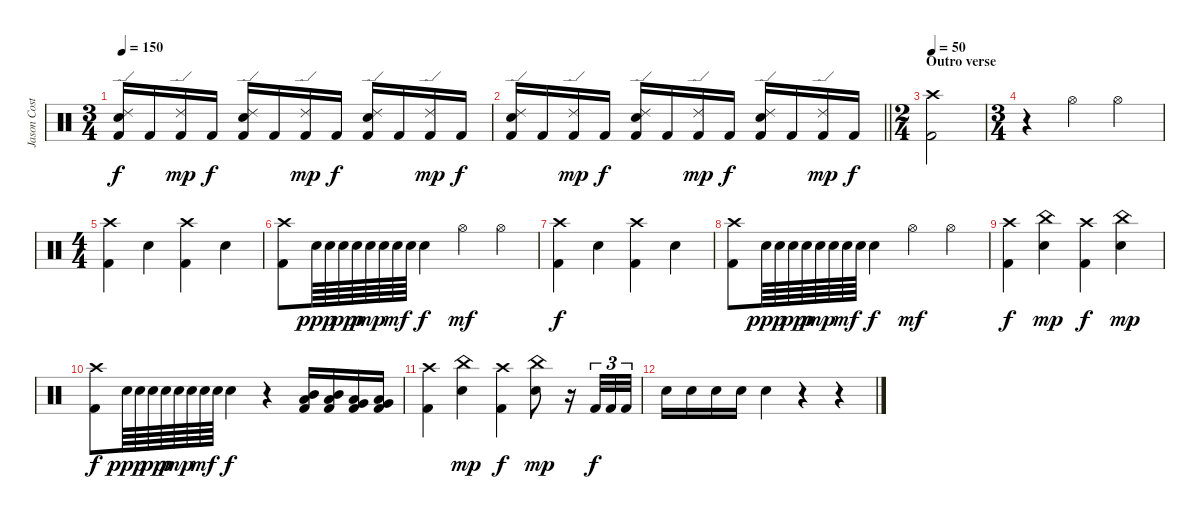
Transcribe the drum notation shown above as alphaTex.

\track ("Jason Costa" "Jason Cost") {instrument percussion}
\staff {score}
\articulation defaults
\ts (3 4)
\tempo 150
\clef neutral
\ks c
("Ride (edge) 2" "Electric Snare (hit)" "Kick (hit) 2").16{dy f} "Kick (hit) 2".16 ("Ride (edge) 2" "Kick (hit) 2").16{dy mp} "Kick (hit) 2".16{dy f} ("Ride (edge) 2" "Electric Snare (hit)" "Kick (hit) 2").16 "Kick (hit) 2".16 ("Ride (edge) 2" "Kick (hit) 2").16{dy mp} "Kick (hit) 2".16{dy f} ("Ride (edge) 2" "Electric Snare (hit)" "Kick (hit) 2").16 "Kick (hit) 2".16 ("Ride (edge) 2" "Kick (hit) 2").16{dy mp} "Kick (hit) 2".16{dy f} |
\barLineRight lightlight
("Ride (edge) 2" "Electric Snare (hit)" "Kick (hit) 2").16 "Kick (hit) 2".16 ("Ride (edge) 2" "Kick (hit) 2").16{dy mp} "Kick (hit) 2".16{dy f} ("Ride (edge) 2" "Electric Snare (hit)" "Kick (hit) 2").16 "Kick (hit) 2".16 ("Ride (edge) 2" "Kick (hit) 2").16{dy mp} "Kick (hit) 2".16{dy f} ("Ride (edge) 2" "Electric Snare (hit)" "Kick (hit) 2").16 "Kick (hit) 2".16 ("Ride (edge) 2" "Kick (hit) 2").16{dy mp} "Kick (hit) 2".16{dy f} |
\ts (2 4)
\section ("" "Outro verse")
\tempo 50
("Crash high (hit)" "Kick (hit) 2").2 |
\ts (3 4)
r.4 "Hi-Hat (open)".4 "Hi-Hat (open)".4 |
\ts (4 4)
("Crash high (hit)" "Kick (hit) 2").4 "Electric Snare (hit)".4 ("Crash high (hit)" "Kick (hit) 2").4 "Electric Snare (hit)".4 |
("Crash high (hit)" "Kick (hit) 2").8 "Electric Snare (hit)".64{dy ppp} "Electric Snare (hit)".64 "Electric Snare (hit)".64{dy pp} "Electric Snare (hit)".64{dy p} "Electric Snare (hit)".64{dy mp} "Electric Snare (hit)".64 "Electric Snare (hit)".64{dy mf} "Electric Snare (hit)".64 "Electric Snare (hit)".4{dy f} "Hi-Hat (open)".4{dy mf} "Hi-Hat (open)".4 |
("Crash high (hit)" "Kick (hit) 2").4{dy f} "Electric Snare (hit)".4 ("Crash high (hit)" "Kick (hit) 2").4 "Electric Snare (hit)".4 |
("Crash high (hit)" "Kick (hit) 2").8 "Electric Snare (hit)".64{dy ppp} "Electric Snare (hit)".64 "Electric Snare (hit)".64{dy pp} "Electric Snare (hit)".64{dy p} "Electric Snare (hit)".64{dy mp} "Electric Snare (hit)".64 "Electric Snare (hit)".64{dy mf} "Electric Snare (hit)".64 "Electric Snare (hit)".4{dy f} "Hi-Hat (open)".4{dy mf} "Hi-Hat (open)".4 |
("Crash high (hit)" "Kick (hit) 2").4{dy f} ("China (hit)" "Electric Snare (hit)").4{dy mp} ("Crash high (hit)" "Kick (hit) 2").4{dy f} ("China (hit)" "Electric Snare (hit)").4{dy mp} |
("Crash high (hit)" "Kick (hit) 2").8{dy f} "Electric Snare (hit)".64{dy ppp} "Electric Snare (hit)".64 "Electric Snare (hit)".64{dy pp} "Electric Snare (hit)".64{dy p} "Electric Snare (hit)".64{dy mp} "Electric Snare (hit)".64 "Electric Snare (hit)".64{dy mf} "Electric Snare (hit)".64 "Electric Snare (hit)".4{dy f} r.4 ("Mid Tom (hit)" "Low Tom (hit)" "Kick (hit) 2").16 ("Mid Tom (hit)" "Low Tom (hit)" "Kick (hit) 2").16 ("Low Tom (hit)" "Very Low Tom (hit)" "Kick (hit) 2").16 ("Low Tom (hit)" "Very Low Tom (hit)" "Kick (hit) 2").16 |
("Crash high (hit)" "Kick (hit) 2").4 ("China (hit)" "Electric Snare (hit)").4{dy mp} ("Crash high (hit)" "Kick (hit) 2").4{dy f} ("China (hit)" "Electric Snare (hit)").8{dy mp} r.16 "Kick (hit) 2".32{tu (3 2) dy f} "Kick (hit) 2".32{tu (3 2)} "Kick (hit) 2".32{tu (3 2)} |
"Electric Snare (hit)".16 "Electric Snare (hit)".16 "Electric Snare (hit)".16 "Electric Snare (hit)".16 "Electric Snare (hit)".4 r.4 r.4
